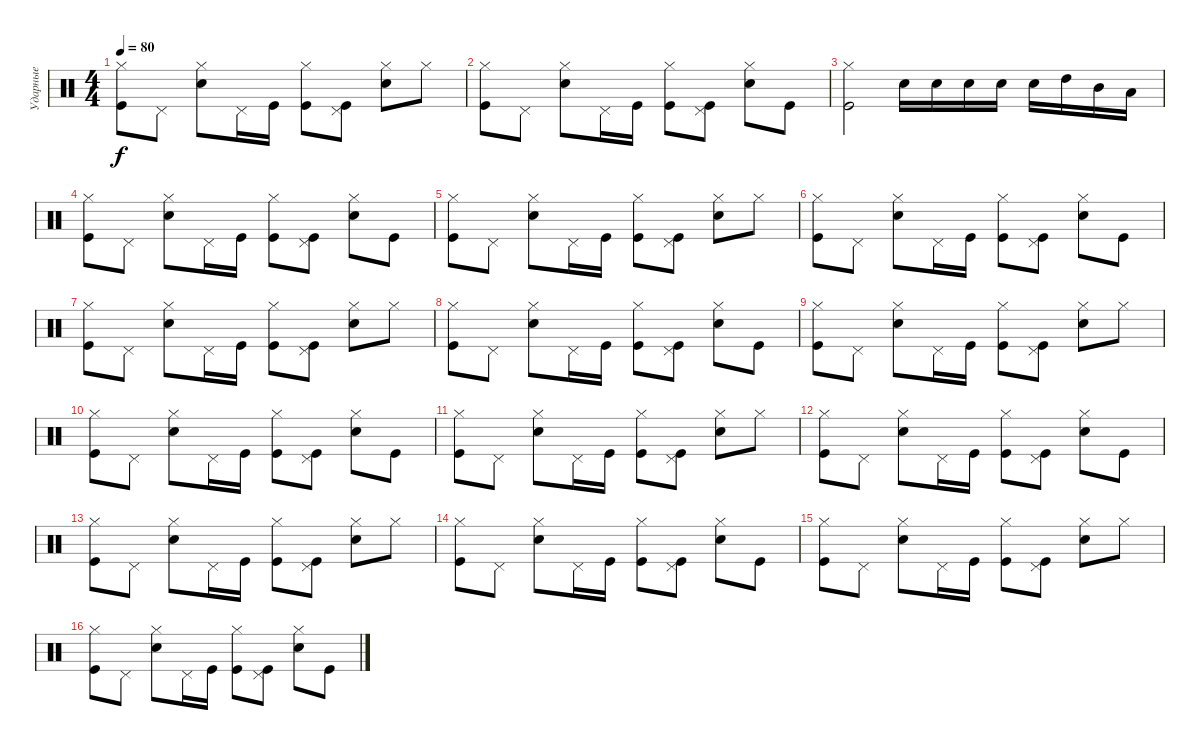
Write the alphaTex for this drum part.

\track ("Ударные" "Ударные") {instrument percussion}
\staff {score}
\articulation defaults
\ts (4 4)
\tempo 80
\clef neutral
\ks c
("Kick (hit)" "Hi-Hat (closed)").8{dy f} "Pedal Hi-Hat (hit)".8 ("Snare (hit) 2" "Hi-Hat (closed)").8 "Pedal Hi-Hat (hit)".16 "Kick (hit)".16 ("Kick (hit)" "Hi-Hat (closed)").8 ("Kick (hit)" "Pedal Hi-Hat (hit)").8 ("Snare (hit) 2" "Hi-Hat (closed)").8 "Hi-Hat (closed)".8 |
("Kick (hit)" "Hi-Hat (closed)").8 "Pedal Hi-Hat (hit)".8 ("Snare (hit) 2" "Hi-Hat (closed)").8 "Pedal Hi-Hat (hit)".16 "Kick (hit)".16 ("Kick (hit)" "Hi-Hat (closed)").8 ("Kick (hit)" "Pedal Hi-Hat (hit)").8 ("Snare (hit) 2" "Hi-Hat (closed)").8 "Kick (hit)".8 |
("Kick (hit)" "Hi-Hat (closed)").2 "Snare (hit) 2".16 "Snare (hit) 2".16 "Snare (hit) 2".16 "Snare (hit) 2".16 "Snare (hit) 2".16 "High Tom (hit)".16 "Mid Tom (hit)".16 "Low Floor Tom (hit)".16 |
("Kick (hit)" "Hi-Hat (closed)").8 "Pedal Hi-Hat (hit)".8 ("Snare (hit) 2" "Hi-Hat (closed)").8 "Pedal Hi-Hat (hit)".16 "Kick (hit)".16 ("Kick (hit)" "Hi-Hat (closed)").8 ("Kick (hit)" "Pedal Hi-Hat (hit)").8 ("Snare (hit) 2" "Hi-Hat (closed)").8 "Kick (hit)".8 |
("Kick (hit)" "Hi-Hat (closed)").8 "Pedal Hi-Hat (hit)".8 ("Snare (hit) 2" "Hi-Hat (closed)").8 "Pedal Hi-Hat (hit)".16 "Kick (hit)".16 ("Kick (hit)" "Hi-Hat (closed)").8 ("Kick (hit)" "Pedal Hi-Hat (hit)").8 ("Snare (hit) 2" "Hi-Hat (closed)").8 "Hi-Hat (closed)".8 |
("Kick (hit)" "Hi-Hat (closed)").8 "Pedal Hi-Hat (hit)".8 ("Snare (hit) 2" "Hi-Hat (closed)").8 "Pedal Hi-Hat (hit)".16 "Kick (hit)".16 ("Kick (hit)" "Hi-Hat (closed)").8 ("Kick (hit)" "Pedal Hi-Hat (hit)").8 ("Snare (hit) 2" "Hi-Hat (closed)").8 "Kick (hit)".8 |
("Kick (hit)" "Hi-Hat (closed)").8 "Pedal Hi-Hat (hit)".8 ("Snare (hit) 2" "Hi-Hat (closed)").8 "Pedal Hi-Hat (hit)".16 "Kick (hit)".16 ("Kick (hit)" "Hi-Hat (closed)").8 ("Kick (hit)" "Pedal Hi-Hat (hit)").8 ("Snare (hit) 2" "Hi-Hat (closed)").8 "Hi-Hat (closed)".8 |
("Kick (hit)" "Hi-Hat (closed)").8 "Pedal Hi-Hat (hit)".8 ("Snare (hit) 2" "Hi-Hat (closed)").8 "Pedal Hi-Hat (hit)".16 "Kick (hit)".16 ("Kick (hit)" "Hi-Hat (closed)").8 ("Kick (hit)" "Pedal Hi-Hat (hit)").8 ("Snare (hit) 2" "Hi-Hat (closed)").8 "Kick (hit)".8 |
("Kick (hit)" "Hi-Hat (closed)").8 "Pedal Hi-Hat (hit)".8 ("Snare (hit) 2" "Hi-Hat (closed)").8 "Pedal Hi-Hat (hit)".16 "Kick (hit)".16 ("Kick (hit)" "Hi-Hat (closed)").8 ("Kick (hit)" "Pedal Hi-Hat (hit)").8 ("Snare (hit) 2" "Hi-Hat (closed)").8 "Hi-Hat (closed)".8 |
("Kick (hit)" "Hi-Hat (closed)").8 "Pedal Hi-Hat (hit)".8 ("Snare (hit) 2" "Hi-Hat (closed)").8 "Pedal Hi-Hat (hit)".16 "Kick (hit)".16 ("Kick (hit)" "Hi-Hat (closed)").8 ("Kick (hit)" "Pedal Hi-Hat (hit)").8 ("Snare (hit) 2" "Hi-Hat (closed)").8 "Kick (hit)".8 |
("Kick (hit)" "Hi-Hat (closed)").8 "Pedal Hi-Hat (hit)".8 ("Snare (hit) 2" "Hi-Hat (closed)").8 "Pedal Hi-Hat (hit)".16 "Kick (hit)".16 ("Kick (hit)" "Hi-Hat (closed)").8 ("Kick (hit)" "Pedal Hi-Hat (hit)").8 ("Snare (hit) 2" "Hi-Hat (closed)").8 "Hi-Hat (closed)".8 |
("Kick (hit)" "Hi-Hat (closed)").8 "Pedal Hi-Hat (hit)".8 ("Snare (hit) 2" "Hi-Hat (closed)").8 "Pedal Hi-Hat (hit)".16 "Kick (hit)".16 ("Kick (hit)" "Hi-Hat (closed)").8 ("Kick (hit)" "Pedal Hi-Hat (hit)").8 ("Snare (hit) 2" "Hi-Hat (closed)").8 "Kick (hit)".8 |
("Kick (hit)" "Hi-Hat (closed)").8 "Pedal Hi-Hat (hit)".8 ("Snare (hit) 2" "Hi-Hat (closed)").8 "Pedal Hi-Hat (hit)".16 "Kick (hit)".16 ("Kick (hit)" "Hi-Hat (closed)").8 ("Kick (hit)" "Pedal Hi-Hat (hit)").8 ("Snare (hit) 2" "Hi-Hat (closed)").8 "Hi-Hat (closed)".8 |
("Kick (hit)" "Hi-Hat (closed)").8 "Pedal Hi-Hat (hit)".8 ("Snare (hit) 2" "Hi-Hat (closed)").8 "Pedal Hi-Hat (hit)".16 "Kick (hit)".16 ("Kick (hit)" "Hi-Hat (closed)").8 ("Kick (hit)" "Pedal Hi-Hat (hit)").8 ("Snare (hit) 2" "Hi-Hat (closed)").8 "Kick (hit)".8 |
("Kick (hit)" "Hi-Hat (closed)").8 "Pedal Hi-Hat (hit)".8 ("Snare (hit) 2" "Hi-Hat (closed)").8 "Pedal Hi-Hat (hit)".16 "Kick (hit)".16 ("Kick (hit)" "Hi-Hat (closed)").8 ("Kick (hit)" "Pedal Hi-Hat (hit)").8 ("Snare (hit) 2" "Hi-Hat (closed)").8 "Hi-Hat (closed)".8 |
("Kick (hit)" "Hi-Hat (closed)").8 "Pedal Hi-Hat (hit)".8 ("Snare (hit) 2" "Hi-Hat (closed)").8 "Pedal Hi-Hat (hit)".16 "Kick (hit)".16 ("Kick (hit)" "Hi-Hat (closed)").8 ("Kick (hit)" "Pedal Hi-Hat (hit)").8 ("Snare (hit) 2" "Hi-Hat (closed)").8 "Kick (hit)".8
